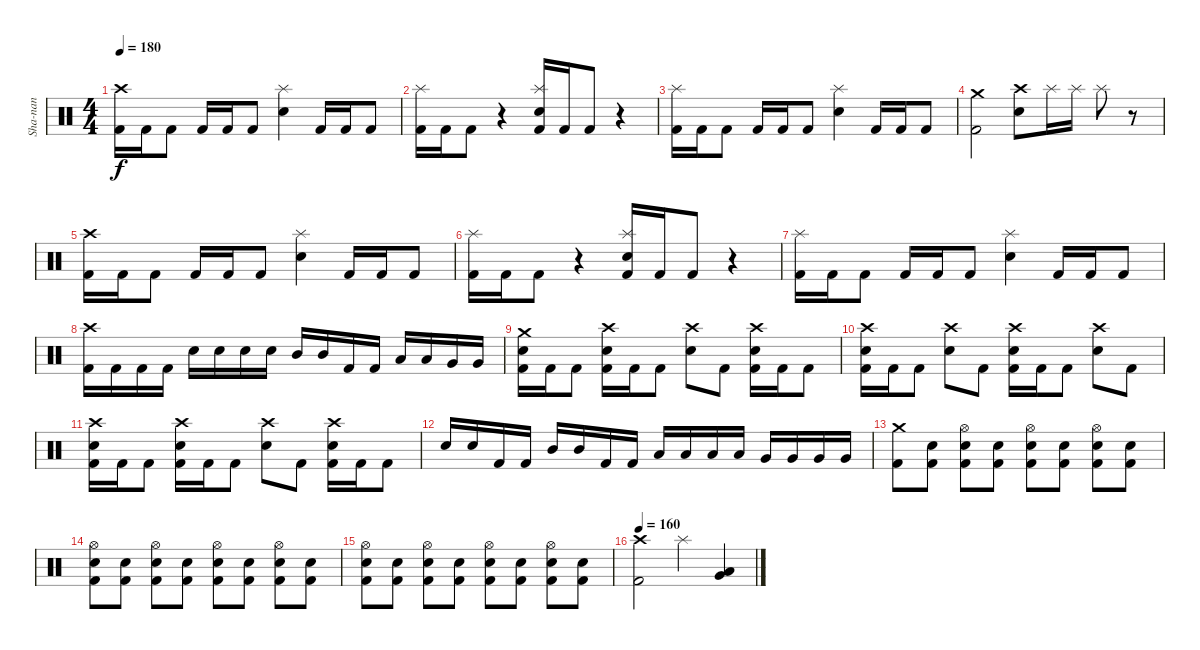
\track ("Sha-nan" "Sha-nan") {instrument percussion}
\staff {score}
\articulation defaults
\ts (4 4)
\tempo 180
\clef neutral
\ks c
("Crash high (hit)" "Kick (hit) 2").16{dy f} "Kick (hit) 2".16 "Kick (hit) 2".8 "Kick (hit) 2".16 "Kick (hit) 2".16 "Kick (hit) 2".8 ("Splash (hit)" "Snare (hit) 2").4 "Kick (hit) 2".16 "Kick (hit) 2".16 "Kick (hit) 2".8 |
("Splash (hit)" "Kick (hit) 2").16 "Kick (hit) 2".16 "Kick (hit) 2".8 r.4 ("Splash (hit)" "Snare (hit) 2" "Kick (hit) 2").16 "Kick (hit) 2".16 "Kick (hit) 2".8 r.4 |
("Splash (hit)" "Kick (hit) 2").16 "Kick (hit) 2".16 "Kick (hit) 2".8 "Kick (hit) 2".16 "Kick (hit) 2".16 "Kick (hit) 2".8 ("Splash (hit)" "Snare (hit) 2").4 "Kick (hit) 2".16 "Kick (hit) 2".16 "Kick (hit) 2".8 |
("Crash medium (hit)" "Kick (hit) 2").2 ("Crash high (hit)" "Snare (hit) 2").8 "Splash (hit)".16 "Splash (hit)".16 "Splash (hit)".8 r.8 |
("Crash high (hit)" "Kick (hit) 2").16 "Kick (hit) 2".16 "Kick (hit) 2".8 "Kick (hit) 2".16 "Kick (hit) 2".16 "Kick (hit) 2".8 ("Splash (hit)" "Snare (hit) 2").4 "Kick (hit) 2".16 "Kick (hit) 2".16 "Kick (hit) 2".8 |
("Splash (hit)" "Kick (hit) 2").16 "Kick (hit) 2".16 "Kick (hit) 2".8 r.4 ("Splash (hit)" "Snare (hit) 2" "Kick (hit) 2").16 "Kick (hit) 2".16 "Kick (hit) 2".8 r.4 |
("Splash (hit)" "Kick (hit) 2").16 "Kick (hit) 2".16 "Kick (hit) 2".8 "Kick (hit) 2".16 "Kick (hit) 2".16 "Kick (hit) 2".8 ("Splash (hit)" "Snare (hit) 2").4 "Kick (hit) 2".16 "Kick (hit) 2".16 "Kick (hit) 2".8 |
("Crash high (hit)" "Kick (hit) 2").16 "Kick (hit) 2".16 "Kick (hit) 2".16 "Kick (hit) 2".16 "Snare (hit) 2".16 "Snare (hit) 2".16 "Snare (hit) 2".16 "Snare (hit) 2".16 "Mid Tom (hit)".16 "Mid Tom (hit)".16 "Kick (hit) 2".16 "Kick (hit) 2".16 "Low Tom (hit)".16 "Low Tom (hit)".16 "Very Low Tom (hit)".16 "Very Low Tom (hit)".16 |
("Crash medium (hit)" "Snare (hit) 2" "Kick (hit) 2").16 "Kick (hit) 2".16 "Kick (hit) 2".8 ("Crash high (hit)" "Snare (hit) 2" "Kick (hit) 2").16 "Kick (hit) 2".16 "Kick (hit) 2".8 ("Crash high (hit)" "Snare (hit) 2").8 "Kick (hit) 2".8 ("Crash high (hit)" "Snare (hit) 2" "Kick (hit) 2").16 "Kick (hit) 2".16 "Kick (hit) 2".8 |
("Crash high (hit)" "Snare (hit) 2" "Kick (hit) 2").16 "Kick (hit) 2".16 "Kick (hit) 2".8 ("Crash high (hit)" "Snare (hit) 2").8 "Kick (hit) 2".8 ("Crash high (hit)" "Snare (hit) 2" "Kick (hit) 2").16 "Kick (hit) 2".16 "Kick (hit) 2".8 ("Crash high (hit)" "Snare (hit) 2").8 "Kick (hit) 2".8 |
("Crash high (hit)" "Snare (hit) 2" "Kick (hit) 2").16 "Kick (hit) 2".16 "Kick (hit) 2".8 ("Crash high (hit)" "Snare (hit) 2" "Kick (hit) 2").16 "Kick (hit) 2".16 "Kick (hit) 2".8 ("Crash high (hit)" "Snare (hit) 2").8 "Kick (hit) 2".8 ("Crash high (hit)" "Snare (hit) 2" "Kick (hit) 2").16 "Kick (hit) 2".16 "Kick (hit) 2".8 |
"Snare (hit) 2".16 "Snare (hit) 2".16 "Kick (hit) 2".16 "Kick (hit) 2".16 "Mid Tom (hit)".16 "Mid Tom (hit)".16 "Kick (hit) 2".16 "Kick (hit) 2".16 "Low Tom (hit)".16 "Low Tom (hit)".16 "Low Tom (hit)".16 "Low Tom (hit)".16 "Very Low Tom (hit)".16 "Very Low Tom (hit)".16 "Very Low Tom (hit)".16 "Very Low Tom (hit)".16 |
("Crash medium (hit)" "Kick (hit) 2").8 ("Snare (hit) 2" "Kick (hit) 2").8 ("Hi-Hat (open)" "Snare (hit) 2" "Kick (hit) 2").8 ("Snare (hit) 2" "Kick (hit) 2").8 ("Hi-Hat (open)" "Snare (hit) 2" "Kick (hit) 2").8 ("Snare (hit) 2" "Kick (hit) 2").8 ("Hi-Hat (open)" "Snare (hit) 2" "Kick (hit) 2").8 ("Snare (hit) 2" "Kick (hit) 2").8 |
("Hi-Hat (open)" "Snare (hit) 2" "Kick (hit) 2").8 ("Snare (hit) 2" "Kick (hit) 2").8 ("Hi-Hat (open)" "Snare (hit) 2" "Kick (hit) 2").8 ("Snare (hit) 2" "Kick (hit) 2").8 ("Hi-Hat (open)" "Snare (hit) 2" "Kick (hit) 2").8 ("Snare (hit) 2" "Kick (hit) 2").8 ("Hi-Hat (open)" "Snare (hit) 2" "Kick (hit) 2").8 ("Snare (hit) 2" "Kick (hit) 2").8 |
("Hi-Hat (open)" "Snare (hit) 2" "Kick (hit) 2").8 ("Snare (hit) 2" "Kick (hit) 2").8 ("Hi-Hat (open)" "Snare (hit) 2" "Kick (hit) 2").8 ("Snare (hit) 2" "Kick (hit) 2").8 ("Hi-Hat (open)" "Snare (hit) 2" "Kick (hit) 2").8 ("Snare (hit) 2" "Kick (hit) 2").8 ("Hi-Hat (open)" "Snare (hit) 2" "Kick (hit) 2").8 ("Snare (hit) 2" "Kick (hit) 2").8 |
\tempo 160
("Crash high (hit)" "Kick (hit) 2").2 "Splash (hit)".4 ("Low Tom (hit)" "Very Low Tom (hit)").4
